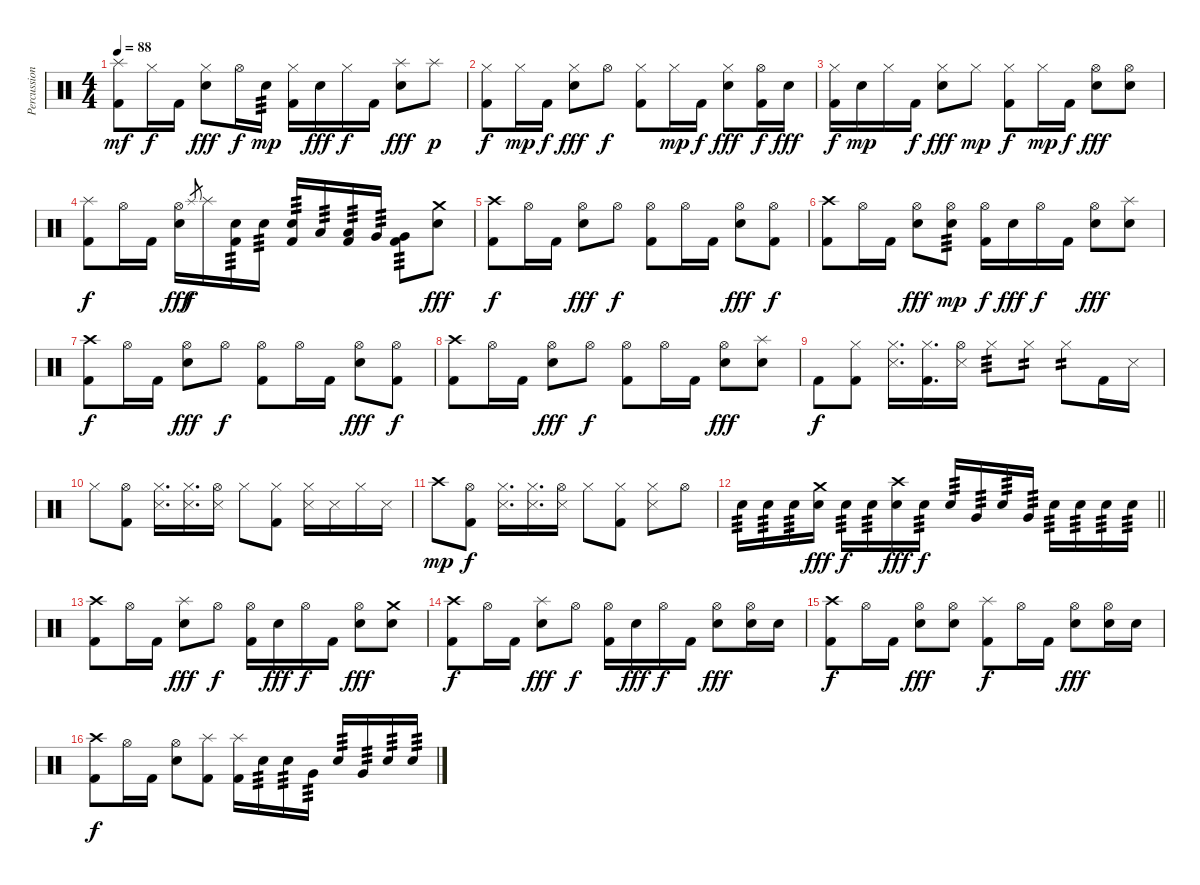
\track ("Percussion" "Percussion") {instrument percussion}
\staff {score}
\articulation defaults
\ts (4 4)
\tempo 88
\clef neutral
\ks c
("Splash (hit)" "Kick (hit) 2").8{dy mf} "Hi-Hat (closed)".16{dy f} "Kick (hit) 2".16 ("Hi-Hat (closed)" "Electric Snare (hit)").8{dy fff} "Hi-Hat (open)".16{dy f} "Electric Snare (hit)".16{tp 3 dy mp} ("Hi-Hat (closed)" "Kick (hit) 2").16 "Electric Snare (hit)".16{dy fff} "Hi-Hat (closed)".16{dy f} "Kick (hit) 2".16 ("Splash (hit)" "Electric Snare (hit)").8{dy fff} "Splash (hit)".8{dy p} |
("Hi-Hat (closed)" "Kick (hit) 2").8{dy f} "Hi-Hat (closed)".16{dy mp} "Kick (hit) 2".16{dy f} ("Hi-Hat (closed)" "Electric Snare (hit)").8{dy fff} "Hi-Hat (open)".8{dy f} ("Hi-Hat (closed)" "Kick (hit) 2").8 "Hi-Hat (closed)".16{dy mp} "Kick (hit) 2".16{dy f} ("Hi-Hat (closed)" "Electric Snare (hit)").8{dy fff} ("Hi-Hat (open)" "Kick (hit) 2").16{dy f} "Electric Snare (hit)".16{dy fff} |
("Hi-Hat (closed)" "Kick (hit) 2").16{dy f} "Electric Snare (hit)".16{dy mp} "Hi-Hat (closed)".16 "Kick (hit) 2".16{dy f} ("Hi-Hat (closed)" "Electric Snare (hit)").8{dy fff} "Hi-Hat (closed)".8{dy mp} ("Hi-Hat (closed)" "Kick (hit) 2").8{dy f} "Hi-Hat (closed)".16{dy mp} "Kick (hit) 2".16{dy f} ("Hi-Hat (open)" "Electric Snare (hit)").8{dy fff} ("Hi-Hat (open)" "Electric Snare (hit)").8 |
("Splash (hit)" "Kick (hit) 2").8{dy f} "Hi-Hat (open)".16 "Kick (hit) 2".16 ("Hi-Hat (open)" "Electric Snare (hit)").16{dy fff} "Splash (hit)".8{gr dy f} "Splash (hit)".16 ("Electric Snare (hit)" "Kick (hit) 2").16{tp 3} "Electric Snare (hit)".16{tp 3} ("Electric Snare (hit)" "Kick (hit) 2").16{tp 3} "Low Tom (hit)".16{tp 3} ("Low Tom (hit)" "Kick (hit) 2").16{tp 3} "Very Low Tom (hit)".16{tp 3} ("Very Low Tom (hit)" "Kick (hit) 2").8{tp 3} ("Crash medium (hit)" "Electric Snare (hit)").8{dy fff} |
("Crash high (hit)" "Kick (hit) 2").8{dy f} "Hi-Hat (open)".16 "Kick (hit) 2".16 ("Hi-Hat (open)" "Electric Snare (hit)").8{dy fff} "Hi-Hat (open)".8{dy f} ("Hi-Hat (open)" "Kick (hit) 2").8 "Hi-Hat (open)".16 "Kick (hit) 2".16 ("Hi-Hat (open)" "Electric Snare (hit)").8{dy fff} ("Hi-Hat (open)" "Kick (hit) 2").8{dy f} |
("Crash high (hit)" "Kick (hit) 2").8 "Hi-Hat (open)".16 "Kick (hit) 2".16 ("Hi-Hat (open)" "Electric Snare (hit)").8{dy fff} ("Hi-Hat (open)" "Electric Snare (hit)").8{tp 3 dy mp} ("Hi-Hat (open)" "Kick (hit) 2").16{dy f} "Electric Snare (hit)".16{dy fff} "Hi-Hat (open)".16{dy f} "Kick (hit) 2".16 ("Hi-Hat (open)" "Electric Snare (hit)").8{dy fff} ("Splash (hit)" "Electric Snare (hit)").8 |
("Crash high (hit)" "Kick (hit) 2").8{dy f} "Hi-Hat (open)".16 "Kick (hit) 2".16 ("Hi-Hat (open)" "Electric Snare (hit)").8{dy fff} "Hi-Hat (open)".8{dy f} ("Hi-Hat (open)" "Kick (hit) 2").8 "Hi-Hat (open)".16 "Kick (hit) 2".16 ("Hi-Hat (open)" "Electric Snare (hit)").8{dy fff} ("Hi-Hat (open)" "Kick (hit) 2").8{dy f} |
("Crash high (hit)" "Kick (hit) 2").8 "Hi-Hat (open)".16 "Kick (hit) 2".16 ("Hi-Hat (open)" "Electric Snare (hit)").8{dy fff} "Hi-Hat (open)".8{dy f} ("Hi-Hat (open)" "Kick (hit) 2").8 "Hi-Hat (open)".16 "Kick (hit) 2".16 ("Hi-Hat (open)" "Electric Snare (hit)").8{dy fff} ("Splash (hit)" "Electric Snare (hit)").8 |
"Kick (hit) 2".8{dy f} ("Hi-Hat (closed)" "Kick (hit) 2").8 ("Hi-Hat (closed)" "Snare (side stick) 3").16{d} ("Hi-Hat (closed)" "Kick (hit) 2").16{d} ("Hi-Hat (open)" "Snare (side stick) 3").16 "Hi-Hat (closed)".8{tp 3} "Hi-Hat (closed)".8{tp 2} "Hi-Hat (closed)".8{tp 2} "Kick (hit) 2".16 "Snare (side stick) 3".16 |
"Hi-Hat (closed)".8 ("Hi-Hat (open)" "Kick (hit) 2").8 ("Hi-Hat (closed)" "Snare (side stick) 3").16{d} ("Hi-Hat (closed)" "Snare (side stick) 3").16{d} ("Hi-Hat (open)" "Snare (side stick) 3").16 "Hi-Hat (closed)".8 ("Hi-Hat (closed)" "Kick (hit) 2").8 ("Hi-Hat (closed)" "Snare (side stick) 3").16 "Snare (side stick) 3".16 "Hi-Hat (closed)".16 "Snare (side stick) 3".16 |
"Crash high (hit)".8{dy mp} ("Hi-Hat (open)" "Kick (hit) 2").8{dy f} ("Hi-Hat (closed)" "Snare (side stick) 3").16{d} ("Hi-Hat (closed)" "Snare (side stick) 3").16{d} ("Hi-Hat (open)" "Snare (side stick) 3").16 "Hi-Hat (closed)".8 ("Hi-Hat (closed)" "Kick (hit) 2").8 ("Hi-Hat (closed)" "Snare (side stick) 3").8 "Hi-Hat (open)".8 |
\barLineRight lightlight "Electric Snare (hit)".16{tp 3} "Electric Snare (hit)".16{tp 3} "Electric Snare (hit)".16{tp 3}
("Crash medium (hit)" "Electric Snare (hit)").16{dy fff} "Electric Snare (hit)".16{tp 3 dy f} "Electric Snare (hit)".16{tp 3} ("Crash high (hit)" "Electric Snare (hit)").16{dy fff} "Electric Snare (hit)".16{tp 3 dy f} "Electric Snare (hit)".16{tp 3} "Very Low Tom (hit)".16{tp 3} "Electric Snare (hit)".16{tp 3} "Very Low Tom (hit)".16{tp 3} "Electric Snare (hit)".16{tp 3} "Electric Snare (hit)".16{tp 3} "Electric Snare (hit)".16{tp 3} "Electric Snare (hit)".16{tp 3} |
("Crash high (hit)" "Kick (hit) 2").8 "Hi-Hat (open)".16 "Kick (hit) 2".16 ("Splash (hit)" "Electric Snare (hit)").8{dy fff} "Hi-Hat (open)".8{dy f} ("Hi-Hat (open)" "Kick (hit) 2").16 "Electric Snare (hit)".16{dy fff} "Hi-Hat (open)".16{dy f} "Kick (hit) 2".16 ("Hi-Hat (open)" "Electric Snare (hit)").8{dy fff} ("Crash medium (hit)" "Electric Snare (hit)").8 |
("Crash high (hit)" "Kick (hit) 2").8{dy f} "Hi-Hat (open)".16 "Kick (hit) 2".16 ("Splash (hit)" "Electric Snare (hit)").8{dy fff} "Hi-Hat (open)".8{dy f} ("Hi-Hat (open)" "Kick (hit) 2").16 "Electric Snare (hit)".16{dy fff} "Hi-Hat (open)".16{dy f} "Kick (hit) 2".16 ("Hi-Hat (open)" "Electric Snare (hit)").8{dy fff} ("Hi-Hat (open)" "Electric Snare (hit)").16 "Electric Snare (hit)".16 |
("Crash high (hit)" "Kick (hit) 2").8{dy f} "Hi-Hat (open)".16 "Kick (hit) 2".16 ("Hi-Hat (open)" "Electric Snare (hit)").8{dy fff} ("Hi-Hat (open)" "Electric Snare (hit)").8 ("Splash (hit)" "Kick (hit) 2").8{dy f} "Hi-Hat (open)".16 "Kick (hit) 2".16 ("Hi-Hat (open)" "Electric Snare (hit)").8{dy fff} ("Hi-Hat (open)" "Electric Snare (hit)").16 "Electric Snare (hit)".16 |
("Crash high (hit)" "Kick (hit) 2").8{dy f} "Hi-Hat (open)".16 "Kick (hit) 2".16 ("Hi-Hat (open)" "Electric Snare (hit)").8 ("Splash (hit)" "Kick (hit) 2").8 ("Splash (hit)" "Kick (hit) 2").16 "Electric Snare (hit)".16{tp 3} "Electric Snare (hit)".16{tp 3} "Very Low Tom (hit)".16{tp 3} "Electric Snare (hit)".16{tp 3} "Very Low Tom (hit)".16{tp 3} "Electric Snare (hit)".16{tp 3} "Electric Snare (hit)".16{tp 3}
